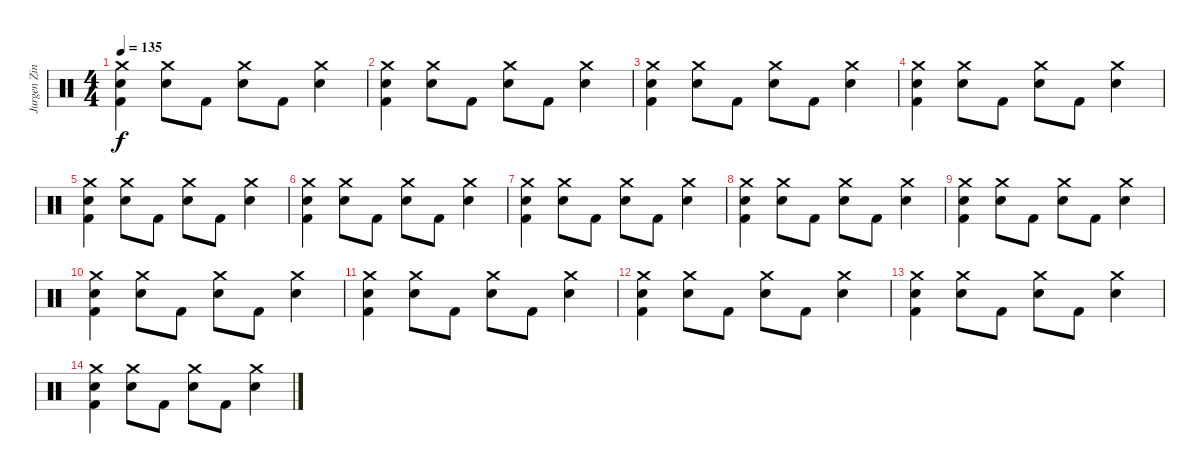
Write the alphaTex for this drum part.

\track ("Jurgen Zing" "Jurgen Zin") {instrument percussion}
\staff {score}
\articulation defaults
\ts (4 4)
\tempo 135
\clef neutral
\ks c
("Crash medium (hit)" "Electric Snare (hit)" "Kick (hit) 2").4{dy f} ("Crash medium (hit)" "Electric Snare (hit)").8 "Kick (hit) 2".8 ("Crash medium (hit)" "Electric Snare (hit)").8 "Kick (hit) 2".8 ("Crash medium (hit)" "Electric Snare (hit)").4 |
("Crash medium (hit)" "Electric Snare (hit)" "Kick (hit) 2").4 ("Crash medium (hit)" "Electric Snare (hit)").8 "Kick (hit) 2".8 ("Crash medium (hit)" "Electric Snare (hit)").8 "Kick (hit) 2".8 ("Crash medium (hit)" "Electric Snare (hit)").4 |
("Crash medium (hit)" "Electric Snare (hit)" "Kick (hit) 2").4 ("Crash medium (hit)" "Electric Snare (hit)").8 "Kick (hit) 2".8 ("Crash medium (hit)" "Electric Snare (hit)").8 "Kick (hit) 2".8 ("Crash medium (hit)" "Electric Snare (hit)").4 |
("Crash medium (hit)" "Electric Snare (hit)" "Kick (hit) 2").4 ("Crash medium (hit)" "Electric Snare (hit)").8 "Kick (hit) 2".8 ("Crash medium (hit)" "Electric Snare (hit)").8 "Kick (hit) 2".8 ("Crash medium (hit)" "Electric Snare (hit)").4 |
("Crash medium (hit)" "Electric Snare (hit)" "Kick (hit) 2").4 ("Crash medium (hit)" "Electric Snare (hit)").8 "Kick (hit) 2".8 ("Crash medium (hit)" "Electric Snare (hit)").8 "Kick (hit) 2".8 ("Crash medium (hit)" "Electric Snare (hit)").4 |
("Crash medium (hit)" "Electric Snare (hit)" "Kick (hit) 2").4 ("Crash medium (hit)" "Electric Snare (hit)").8 "Kick (hit) 2".8 ("Crash medium (hit)" "Electric Snare (hit)").8 "Kick (hit) 2".8 ("Crash medium (hit)" "Electric Snare (hit)").4 |
("Crash medium (hit)" "Electric Snare (hit)" "Kick (hit) 2").4 ("Crash medium (hit)" "Electric Snare (hit)").8 "Kick (hit) 2".8 ("Crash medium (hit)" "Electric Snare (hit)").8 "Kick (hit) 2".8 ("Crash medium (hit)" "Electric Snare (hit)").4 |
("Crash medium (hit)" "Electric Snare (hit)" "Kick (hit) 2").4 ("Crash medium (hit)" "Electric Snare (hit)").8 "Kick (hit) 2".8 ("Crash medium (hit)" "Electric Snare (hit)").8 "Kick (hit) 2".8 ("Crash medium (hit)" "Electric Snare (hit)").4 |
("Crash medium (hit)" "Electric Snare (hit)" "Kick (hit) 2").4 ("Crash medium (hit)" "Electric Snare (hit)").8 "Kick (hit) 2".8 ("Crash medium (hit)" "Electric Snare (hit)").8 "Kick (hit) 2".8 ("Crash medium (hit)" "Electric Snare (hit)").4 |
("Crash medium (hit)" "Electric Snare (hit)" "Kick (hit) 2").4 ("Crash medium (hit)" "Electric Snare (hit)").8 "Kick (hit) 2".8 ("Crash medium (hit)" "Electric Snare (hit)").8 "Kick (hit) 2".8 ("Crash medium (hit)" "Electric Snare (hit)").4 |
("Crash medium (hit)" "Electric Snare (hit)" "Kick (hit) 2").4 ("Crash medium (hit)" "Electric Snare (hit)").8 "Kick (hit) 2".8 ("Crash medium (hit)" "Electric Snare (hit)").8 "Kick (hit) 2".8 ("Crash medium (hit)" "Electric Snare (hit)").4 |
("Crash medium (hit)" "Electric Snare (hit)" "Kick (hit) 2").4 ("Crash medium (hit)" "Electric Snare (hit)").8 "Kick (hit) 2".8 ("Crash medium (hit)" "Electric Snare (hit)").8 "Kick (hit) 2".8 ("Crash medium (hit)" "Electric Snare (hit)").4 |
("Crash medium (hit)" "Electric Snare (hit)" "Kick (hit) 2").4 ("Crash medium (hit)" "Electric Snare (hit)").8 "Kick (hit) 2".8 ("Crash medium (hit)" "Electric Snare (hit)").8 "Kick (hit) 2".8 ("Crash medium (hit)" "Electric Snare (hit)").4 |
("Crash medium (hit)" "Electric Snare (hit)" "Kick (hit) 2").4 ("Crash medium (hit)" "Electric Snare (hit)").8 "Kick (hit) 2".8 ("Crash medium (hit)" "Electric Snare (hit)").8 "Kick (hit) 2".8 ("Crash medium (hit)" "Electric Snare (hit)").4
